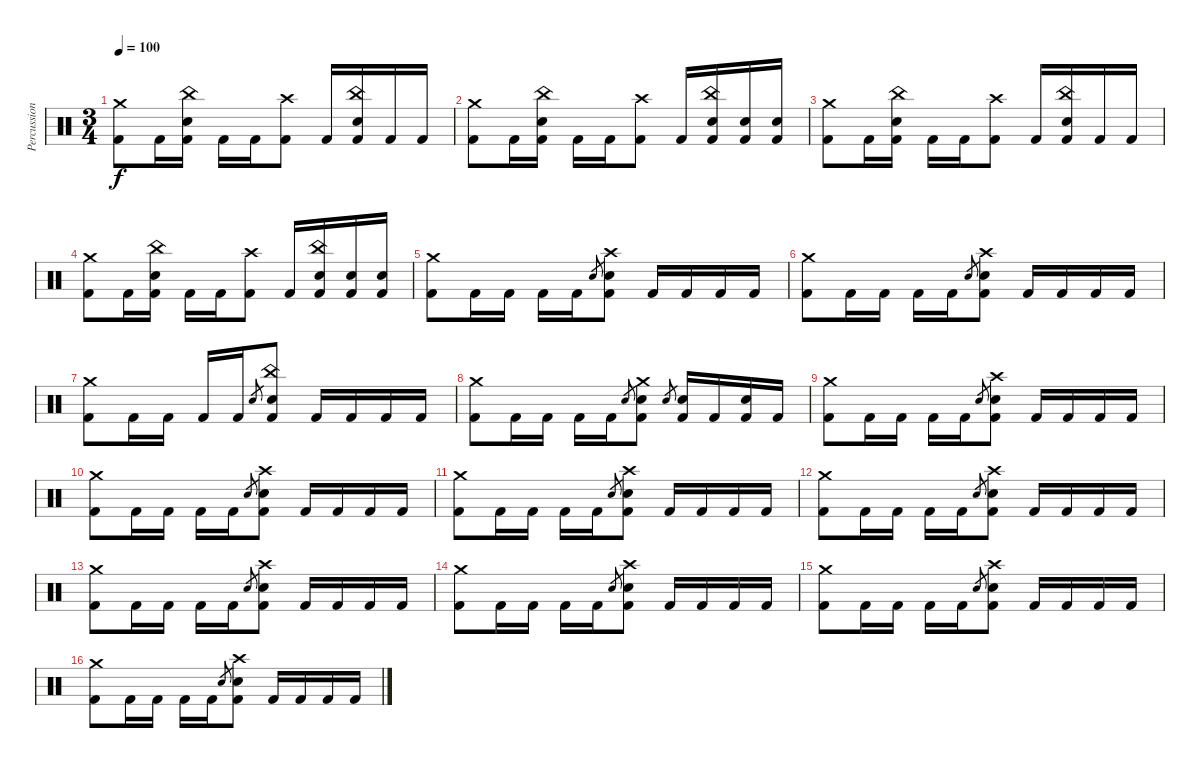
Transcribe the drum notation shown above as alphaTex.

\track ("Percussion" "Percussion") {instrument percussion}
\staff {score}
\articulation defaults
\ts (3 4)
\tempo 100
\clef neutral
\ks c
("Crash medium (hit)" "Kick (hit) 2").8{dy f} "Kick (hit) 2".16 ("China (hit)" "Electric Snare (hit)" "Kick (hit) 2").16 "Kick (hit) 2".16 "Kick (hit) 2".16 ("Crash high (hit)" "Kick (hit) 2").8 "Kick (hit) 2".16 ("China (hit)" "Electric Snare (hit)" "Kick (hit) 2").16 "Kick (hit) 2".16 "Kick (hit) 2".16 |
("Crash medium (hit)" "Kick (hit) 2").8 "Kick (hit) 2".16 ("China (hit)" "Electric Snare (hit)" "Kick (hit) 2").16 "Kick (hit) 2".16 "Kick (hit) 2".16 ("Crash high (hit)" "Kick (hit) 2").8 "Kick (hit) 2".16 ("China (hit)" "Electric Snare (hit)" "Kick (hit) 2").16 ("Electric Snare (hit)" "Kick (hit) 2").16 ("Electric Snare (hit)" "Kick (hit) 2").16 |
("Crash medium (hit)" "Kick (hit) 2").8 "Kick (hit) 2".16 ("China (hit)" "Electric Snare (hit)" "Kick (hit) 2").16 "Kick (hit) 2".16 "Kick (hit) 2".16 ("Crash high (hit)" "Kick (hit) 2").8 "Kick (hit) 2".16 ("China (hit)" "Electric Snare (hit)" "Kick (hit) 2").16 "Kick (hit) 2".16 "Kick (hit) 2".16 |
("Crash medium (hit)" "Kick (hit) 2").8 "Kick (hit) 2".16 ("China (hit)" "Electric Snare (hit)" "Kick (hit) 2").16 "Kick (hit) 2".16 "Kick (hit) 2".16 ("Crash high (hit)" "Kick (hit) 2").8 "Kick (hit) 2".16 ("China (hit)" "Electric Snare (hit)" "Kick (hit) 2").16 ("Electric Snare (hit)" "Kick (hit) 2").16 ("Electric Snare (hit)" "Kick (hit) 2").16 |
("Crash medium (hit)" "Kick (hit) 2").8 "Kick (hit) 2".16 "Kick (hit) 2".16 "Kick (hit) 2".16 "Kick (hit) 2".16 "Electric Snare (hit)".8{gr} ("Crash high (hit)" "Electric Snare (hit)" "Kick (hit) 2").8 "Kick (hit) 2".16 "Kick (hit) 2".16 "Kick (hit) 2".16 "Kick (hit) 2".16 |
("Crash medium (hit)" "Kick (hit) 2").8 "Kick (hit) 2".16 "Kick (hit) 2".16 "Kick (hit) 2".16 "Kick (hit) 2".16 "Electric Snare (hit)".8{gr} ("Crash high (hit)" "Electric Snare (hit)" "Kick (hit) 2").8 "Kick (hit) 2".16 "Kick (hit) 2".16 "Kick (hit) 2".16 "Kick (hit) 2".16 |
("Crash medium (hit)" "Kick (hit) 2").8 "Kick (hit) 2".16 "Kick (hit) 2".16 "Kick (hit) 2".16 "Kick (hit) 2".16 "Electric Snare (hit)".8{gr} ("China (hit)" "Electric Snare (hit)" "Kick (hit) 2").8 "Kick (hit) 2".16 "Kick (hit) 2".16 "Kick (hit) 2".16 "Kick (hit) 2".16 |
("Crash medium (hit)" "Kick (hit) 2").8 "Kick (hit) 2".16 "Kick (hit) 2".16 "Kick (hit) 2".16 "Kick (hit) 2".16 "Electric Snare (hit)".8{gr} ("Crash medium (hit)" "Electric Snare (hit)" "Kick (hit) 2").8 "Electric Snare (hit)".8{gr} ("Electric Snare (hit)" "Kick (hit) 2").16 "Kick (hit) 2".16 ("Electric Snare (hit)" "Kick (hit) 2").16 "Kick (hit) 2".16 |
("Crash medium (hit)" "Kick (hit) 2").8 "Kick (hit) 2".16 "Kick (hit) 2".16 "Kick (hit) 2".16 "Kick (hit) 2".16 "Electric Snare (hit)".8{gr} ("Crash high (hit)" "Electric Snare (hit)" "Kick (hit) 2").8 "Kick (hit) 2".16 "Kick (hit) 2".16 "Kick (hit) 2".16 "Kick (hit) 2".16 |
("Crash medium (hit)" "Kick (hit) 2").8 "Kick (hit) 2".16 "Kick (hit) 2".16 "Kick (hit) 2".16 "Kick (hit) 2".16 "Electric Snare (hit)".8{gr} ("Crash high (hit)" "Electric Snare (hit)" "Kick (hit) 2").8 "Kick (hit) 2".16 "Kick (hit) 2".16 "Kick (hit) 2".16 "Kick (hit) 2".16 |
("Crash medium (hit)" "Kick (hit) 2").8 "Kick (hit) 2".16 "Kick (hit) 2".16 "Kick (hit) 2".16 "Kick (hit) 2".16 "Electric Snare (hit)".8{gr} ("Crash high (hit)" "Electric Snare (hit)" "Kick (hit) 2").8 "Kick (hit) 2".16 "Kick (hit) 2".16 "Kick (hit) 2".16 "Kick (hit) 2".16 |
("Crash medium (hit)" "Kick (hit) 2").8 "Kick (hit) 2".16 "Kick (hit) 2".16 "Kick (hit) 2".16 "Kick (hit) 2".16 "Electric Snare (hit)".8{gr} ("Crash high (hit)" "Electric Snare (hit)" "Kick (hit) 2").8 "Kick (hit) 2".16 "Kick (hit) 2".16 "Kick (hit) 2".16 "Kick (hit) 2".16 |
("Crash medium (hit)" "Kick (hit) 2").8 "Kick (hit) 2".16 "Kick (hit) 2".16 "Kick (hit) 2".16 "Kick (hit) 2".16 "Electric Snare (hit)".8{gr} ("Crash high (hit)" "Electric Snare (hit)" "Kick (hit) 2").8 "Kick (hit) 2".16 "Kick (hit) 2".16 "Kick (hit) 2".16 "Kick (hit) 2".16 |
("Crash medium (hit)" "Kick (hit) 2").8 "Kick (hit) 2".16 "Kick (hit) 2".16 "Kick (hit) 2".16 "Kick (hit) 2".16 "Electric Snare (hit)".8{gr} ("Crash high (hit)" "Electric Snare (hit)" "Kick (hit) 2").8 "Kick (hit) 2".16 "Kick (hit) 2".16 "Kick (hit) 2".16 "Kick (hit) 2".16 |
("Crash medium (hit)" "Kick (hit) 2").8 "Kick (hit) 2".16 "Kick (hit) 2".16 "Kick (hit) 2".16 "Kick (hit) 2".16 "Electric Snare (hit)".8{gr} ("Crash high (hit)" "Electric Snare (hit)" "Kick (hit) 2").8 "Kick (hit) 2".16 "Kick (hit) 2".16 "Kick (hit) 2".16 "Kick (hit) 2".16 |
("Crash medium (hit)" "Kick (hit) 2").8 "Kick (hit) 2".16 "Kick (hit) 2".16 "Kick (hit) 2".16 "Kick (hit) 2".16 "Electric Snare (hit)".8{gr} ("Crash high (hit)" "Electric Snare (hit)" "Kick (hit) 2").8 "Kick (hit) 2".16 "Kick (hit) 2".16 "Kick (hit) 2".16 "Kick (hit) 2".16
